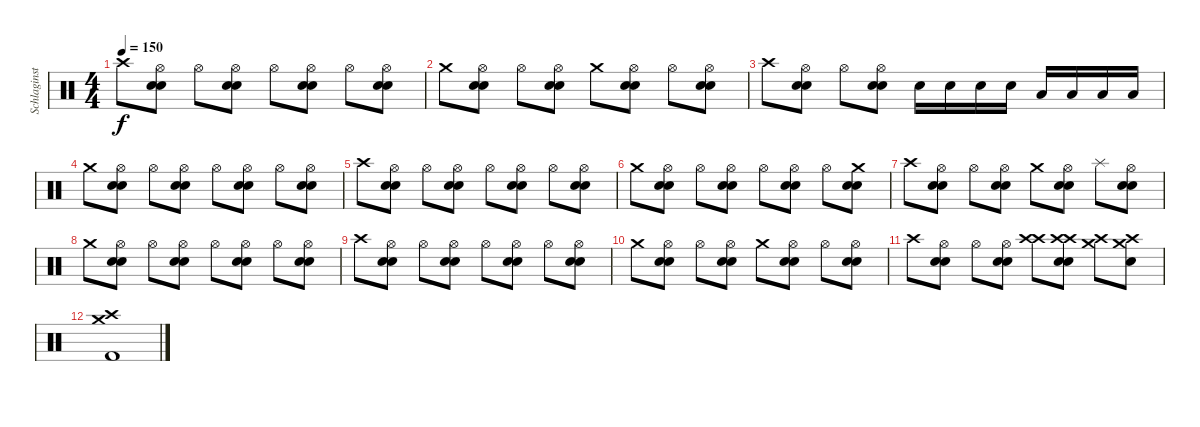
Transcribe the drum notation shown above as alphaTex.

\track ("Schlaginstrumente - Auswahl" "Schlaginst") {instrument percussion}
\staff {score}
\articulation defaults
\ts (4 4)
\tempo 150
\clef neutral
\ks c "Crash high (hit)".8{dy f}
("Hi-Hat (open)" "Electric Snare (hit)" "Electric Snare (hit)").8 "Hi-Hat (open)".8 ("Hi-Hat (open)" "Electric Snare (hit)" "Electric Snare (hit)").8 "Hi-Hat (open)".8 ("Hi-Hat (open)" "Electric Snare (hit)" "Electric Snare (hit)").8 "Hi-Hat (open)".8 ("Hi-Hat (open)" "Electric Snare (hit)" "Electric Snare (hit)").8 |
"Crash medium (hit)".8 ("Hi-Hat (open)" "Electric Snare (hit)" "Electric Snare (hit)").8 "Hi-Hat (open)".8 ("Hi-Hat (open)" "Electric Snare (hit)" "Electric Snare (hit)").8 "Crash medium (hit)".8 ("Hi-Hat (open)" "Electric Snare (hit)" "Electric Snare (hit)").8 "Hi-Hat (open)".8 ("Hi-Hat (open)" "Electric Snare (hit)" "Electric Snare (hit)").8 |
"Crash high (hit)".8 ("Hi-Hat (open)" "Electric Snare (hit)" "Electric Snare (hit)").8 "Hi-Hat (open)".8 ("Hi-Hat (open)" "Electric Snare (hit)" "Electric Snare (hit)").8 "Electric Snare (hit)".16 "Electric Snare (hit)".16 "Electric Snare (hit)".16 "Electric Snare (hit)".16 "Low Tom (hit)".16 "Low Tom (hit)".16 "Low Floor Tom (hit)".16 "Low Floor Tom (hit)".16 |
"Crash medium (hit)".8 ("Hi-Hat (open)" "Electric Snare (hit)" "Electric Snare (hit)").8 "Hi-Hat (open)".8 ("Hi-Hat (open)" "Electric Snare (hit)" "Electric Snare (hit)").8 "Hi-Hat (open)".8 ("Hi-Hat (open)" "Electric Snare (hit)" "Electric Snare (hit)").8 "Hi-Hat (open)".8 ("Hi-Hat (open)" "Electric Snare (hit)" "Electric Snare (hit)").8 |
"Crash high (hit)".8 ("Hi-Hat (open)" "Electric Snare (hit)" "Electric Snare (hit)").8 "Hi-Hat (open)".8 ("Hi-Hat (open)" "Electric Snare (hit)" "Electric Snare (hit)").8 "Hi-Hat (open)".8 ("Hi-Hat (open)" "Electric Snare (hit)" "Electric Snare (hit)").8 "Hi-Hat (open)".8 ("Hi-Hat (open)" "Electric Snare (hit)" "Electric Snare (hit)").8 |
"Crash medium (hit)".8 ("Hi-Hat (open)" "Electric Snare (hit)" "Electric Snare (hit)").8 "Hi-Hat (open)".8 ("Hi-Hat (open)" "Electric Snare (hit)" "Electric Snare (hit)").8 "Hi-Hat (open)".8 ("Hi-Hat (open)" "Electric Snare (hit)" "Electric Snare (hit)").8 "Hi-Hat (open)".8 ("Crash medium (hit)" "Electric Snare (hit)" "Electric Snare (hit)").8 |
"Crash high (hit)".8 ("Hi-Hat (open)" "Electric Snare (hit)" "Electric Snare (hit)").8 "Hi-Hat (open)".8 ("Hi-Hat (open)" "Electric Snare (hit)" "Electric Snare (hit)").8 "Crash medium (hit)".8 ("Hi-Hat (open)" "Electric Snare (hit)" "Electric Snare (hit)").8 "Splash (hit)".8 ("Hi-Hat (open)" "Electric Snare (hit)" "Electric Snare (hit)").8 |
"Crash medium (hit)".8 ("Hi-Hat (open)" "Electric Snare (hit)" "Electric Snare (hit)").8 "Hi-Hat (open)".8 ("Hi-Hat (open)" "Electric Snare (hit)" "Electric Snare (hit)").8 "Hi-Hat (open)".8 ("Hi-Hat (open)" "Electric Snare (hit)" "Electric Snare (hit)").8 "Hi-Hat (open)".8 ("Hi-Hat (open)" "Electric Snare (hit)" "Electric Snare (hit)").8 |
"Crash high (hit)".8 ("Hi-Hat (open)" "Electric Snare (hit)" "Electric Snare (hit)").8 "Hi-Hat (open)".8 ("Hi-Hat (open)" "Electric Snare (hit)" "Electric Snare (hit)").8 "Hi-Hat (open)".8 ("Hi-Hat (open)" "Electric Snare (hit)" "Electric Snare (hit)").8 "Hi-Hat (open)".8 ("Hi-Hat (open)" "Electric Snare (hit)" "Electric Snare (hit)").8 |
"Crash medium (hit)".8 ("Hi-Hat (open)" "Electric Snare (hit)" "Electric Snare (hit)").8 "Hi-Hat (open)".8 ("Hi-Hat (open)" "Electric Snare (hit)" "Electric Snare (hit)").8 "Crash medium (hit)".8 ("Hi-Hat (open)" "Electric Snare (hit)" "Electric Snare (hit)").8 "Hi-Hat (open)".8 ("Hi-Hat (open)" "Electric Snare (hit)" "Electric Snare (hit)").8 |
"Crash high (hit)".8 ("Hi-Hat (open)" "Electric Snare (hit)" "Electric Snare (hit)").8 "Hi-Hat (open)".8 ("Hi-Hat (open)" "Electric Snare (hit)" "Electric Snare (hit)").8 ("Crash high (hit)" "Crash high (hit)").8 ("Crash high (hit)" "Crash high (hit)" "Electric Snare (hit)" "Electric Snare (hit)").8 ("Crash medium (hit)" "Crash high (hit)").8 ("Crash medium (hit)" "Crash high (hit)" "Electric Snare (hit)").8 |
("Crash medium (hit)" "Crash high (hit)" "Kick (hit) 2").1
